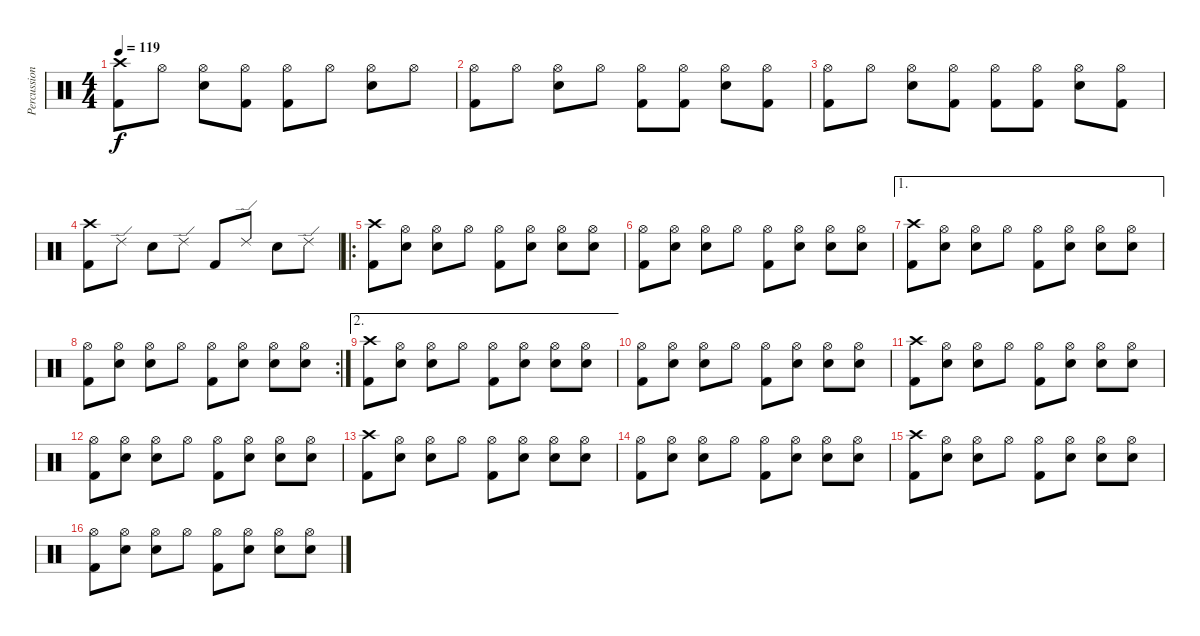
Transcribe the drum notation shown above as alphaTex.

\track ("Percussion" "Percussion") {instrument percussion}
\staff {score}
\articulation defaults
\ts (4 4)
\tempo 119
\clef neutral
\ks c
("Crash high (hit)" "Kick (hit) 2").8{dy f} "Hi-Hat (open)".8 ("Hi-Hat (open)" "Snare (hit) 2").8 ("Hi-Hat (open)" "Kick (hit) 2").8 ("Hi-Hat (open)" "Kick (hit) 2").8 "Hi-Hat (open)".8 ("Hi-Hat (open)" "Snare (hit) 2").8 "Hi-Hat (open)".8 |
("Hi-Hat (open)" "Kick (hit) 2").8 "Hi-Hat (open)".8 ("Hi-Hat (open)" "Snare (hit) 2").8 "Hi-Hat (open)".8 ("Hi-Hat (open)" "Kick (hit) 2").8 ("Hi-Hat (open)" "Kick (hit) 2").8 ("Hi-Hat (open)" "Snare (hit) 2").8 ("Hi-Hat (open)" "Kick (hit) 2").8 |
("Hi-Hat (open)" "Kick (hit) 2").8 "Hi-Hat (open)".8 ("Hi-Hat (open)" "Snare (hit) 2").8 ("Hi-Hat (open)" "Kick (hit) 2").8 ("Hi-Hat (open)" "Kick (hit) 2").8 ("Hi-Hat (open)" "Kick (hit) 2").8 ("Hi-Hat (open)" "Snare (hit) 2").8 ("Hi-Hat (open)" "Kick (hit) 2").8 |
("Crash high (hit)" "Kick (hit) 2").8 "Ride (edge) 2".8 "Snare (hit) 2".8 "Ride (edge) 2".8 "Kick (hit) 2".8 "Ride (edge) 2".8 "Snare (hit) 2".8 "Ride (edge) 2".8 |
\ro
("Crash high (hit)" "Kick (hit) 2").8 ("Hi-Hat (open)" "Snare (hit)").8 ("Hi-Hat (open)" "Snare (hit) 2").8 "Hi-Hat (open)".8 ("Hi-Hat (open)" "Kick (hit) 2").8 ("Hi-Hat (open)" "Snare (hit)").8 ("Hi-Hat (open)" "Snare (hit) 2").8 ("Hi-Hat (open)" "Snare (hit)").8 |
("Hi-Hat (open)" "Kick (hit) 2").8 ("Hi-Hat (open)" "Snare (hit)").8 ("Hi-Hat (open)" "Snare (hit) 2").8 "Hi-Hat (open)".8 ("Hi-Hat (open)" "Kick (hit) 2").8 ("Hi-Hat (open)" "Snare (hit)").8 ("Hi-Hat (open)" "Snare (hit) 2").8 ("Hi-Hat (open)" "Snare (hit)").8 |
\ae 1
("Crash high (hit)" "Kick (hit) 2").8 ("Hi-Hat (open)" "Snare (hit)").8 ("Hi-Hat (open)" "Snare (hit) 2").8 "Hi-Hat (open)".8 ("Hi-Hat (open)" "Kick (hit) 2").8 ("Hi-Hat (open)" "Snare (hit)").8 ("Hi-Hat (open)" "Snare (hit) 2").8 ("Hi-Hat (open)" "Snare (hit)").8 |
\rc 2
("Hi-Hat (open)" "Kick (hit) 2").8 ("Hi-Hat (open)" "Snare (hit)").8 ("Hi-Hat (open)" "Snare (hit) 2").8 "Hi-Hat (open)".8 ("Hi-Hat (open)" "Kick (hit) 2").8 ("Hi-Hat (open)" "Snare (hit)").8 ("Hi-Hat (open)" "Snare (hit) 2").8 ("Hi-Hat (open)" "Snare (hit)").8 |
\ae 2
("Crash high (hit)" "Kick (hit) 2").8 ("Hi-Hat (open)" "Snare (hit)").8 ("Hi-Hat (open)" "Snare (hit) 2").8 "Hi-Hat (open)".8 ("Hi-Hat (open)" "Kick (hit) 2").8 ("Hi-Hat (open)" "Snare (hit)").8 ("Hi-Hat (open)" "Snare (hit) 2").8 ("Hi-Hat (open)" "Snare (hit)").8 |
("Hi-Hat (open)" "Kick (hit) 2").8 ("Hi-Hat (open)" "Snare (hit)").8 ("Hi-Hat (open)" "Snare (hit) 2").8 "Hi-Hat (open)".8 ("Hi-Hat (open)" "Kick (hit) 2").8 ("Hi-Hat (open)" "Snare (hit)").8 ("Hi-Hat (open)" "Snare (hit) 2").8 ("Hi-Hat (open)" "Snare (hit)").8 |
("Crash high (hit)" "Kick (hit) 2").8 ("Hi-Hat (open)" "Snare (hit)").8 ("Hi-Hat (open)" "Snare (hit) 2").8 "Hi-Hat (open)".8 ("Hi-Hat (open)" "Kick (hit) 2").8 ("Hi-Hat (open)" "Snare (hit)").8 ("Hi-Hat (open)" "Snare (hit) 2").8 ("Hi-Hat (open)" "Snare (hit)").8 |
("Hi-Hat (open)" "Kick (hit) 2").8 ("Hi-Hat (open)" "Snare (hit)").8 ("Hi-Hat (open)" "Snare (hit) 2").8 "Hi-Hat (open)".8 ("Hi-Hat (open)" "Kick (hit) 2").8 ("Hi-Hat (open)" "Snare (hit)").8 ("Hi-Hat (open)" "Snare (hit) 2").8 ("Hi-Hat (open)" "Snare (hit)").8 |
("Crash high (hit)" "Kick (hit) 2").8 ("Hi-Hat (open)" "Snare (hit)").8 ("Hi-Hat (open)" "Snare (hit) 2").8 "Hi-Hat (open)".8 ("Hi-Hat (open)" "Kick (hit) 2").8 ("Hi-Hat (open)" "Snare (hit)").8 ("Hi-Hat (open)" "Snare (hit) 2").8 ("Hi-Hat (open)" "Snare (hit)").8 |
("Hi-Hat (open)" "Kick (hit) 2").8 ("Hi-Hat (open)" "Snare (hit)").8 ("Hi-Hat (open)" "Snare (hit) 2").8 "Hi-Hat (open)".8 ("Hi-Hat (open)" "Kick (hit) 2").8 ("Hi-Hat (open)" "Snare (hit)").8 ("Hi-Hat (open)" "Snare (hit) 2").8 ("Hi-Hat (open)" "Snare (hit)").8 |
("Crash high (hit)" "Kick (hit) 2").8 ("Hi-Hat (open)" "Snare (hit)").8 ("Hi-Hat (open)" "Snare (hit) 2").8 "Hi-Hat (open)".8 ("Hi-Hat (open)" "Kick (hit) 2").8 ("Hi-Hat (open)" "Snare (hit)").8 ("Hi-Hat (open)" "Snare (hit) 2").8 ("Hi-Hat (open)" "Snare (hit)").8 |
("Hi-Hat (open)" "Kick (hit) 2").8 ("Hi-Hat (open)" "Snare (hit)").8 ("Hi-Hat (open)" "Snare (hit) 2").8 "Hi-Hat (open)".8 ("Hi-Hat (open)" "Kick (hit) 2").8 ("Hi-Hat (open)" "Snare (hit)").8 ("Hi-Hat (open)" "Snare (hit) 2").8 ("Hi-Hat (open)" "Snare (hit)").8
